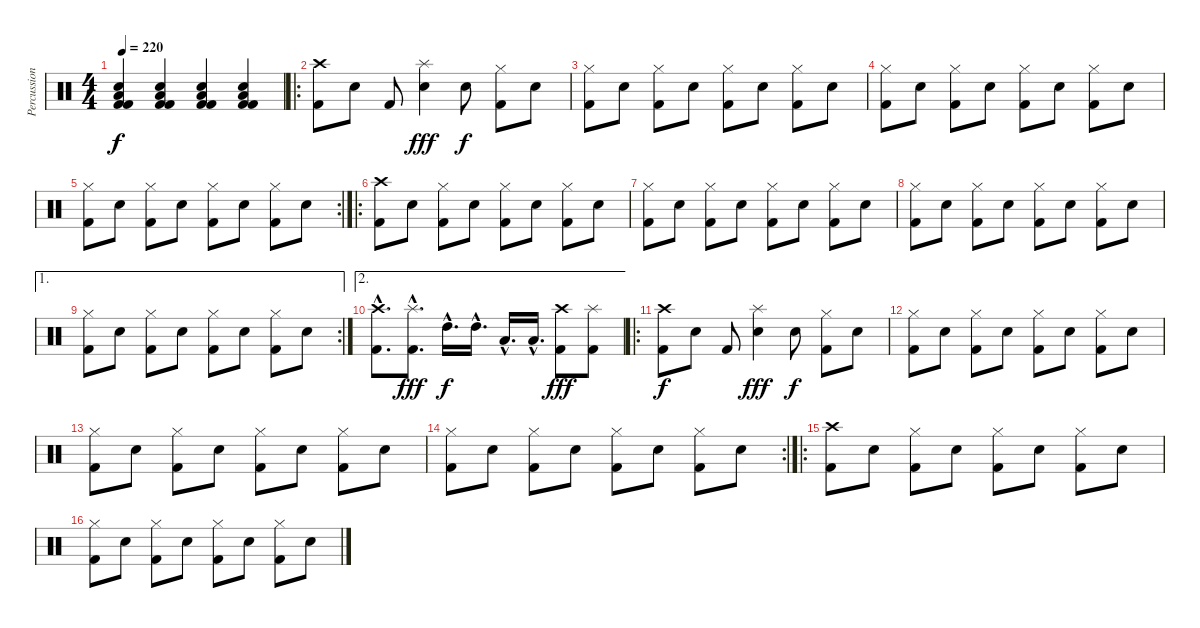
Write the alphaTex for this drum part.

\track ("Percussion" "Percussion") {instrument percussion}
\staff {score}
\articulation defaults
\ts (4 4)
\tempo 220
\clef neutral
\ks c
("Electric Snare (hit)" "Low Tom (hit)" "Kick (hit) 2" "Kick (hit) 2").4{dy f} ("Electric Snare (hit)" "Low Tom (hit)" "Kick (hit) 2" "Kick (hit) 2").4 ("Electric Snare (hit)" "Low Tom (hit)" "Kick (hit) 2" "Kick (hit) 2").4 ("Electric Snare (hit)" "Low Tom (hit)" "Kick (hit) 2" "Kick (hit) 2").4 |
\ro
("Crash high (hit)" "Kick (hit) 2").8 "Electric Snare (hit)".8 "Kick (hit) 2".8 ("Splash (hit)" "Electric Snare (hit)").4{dy fff} "Electric Snare (hit)".8{dy f} ("Hi-Hat (closed)" "Kick (hit) 2").8 "Electric Snare (hit)".8 |
("Hi-Hat (closed)" "Kick (hit) 2").8 "Electric Snare (hit)".8 ("Hi-Hat (closed)" "Kick (hit) 2").8 "Electric Snare (hit)".8 ("Hi-Hat (closed)" "Kick (hit) 2").8 "Electric Snare (hit)".8 ("Hi-Hat (closed)" "Kick (hit) 2").8 "Electric Snare (hit)".8 |
("Hi-Hat (closed)" "Kick (hit) 2").8 "Electric Snare (hit)".8 ("Hi-Hat (closed)" "Kick (hit) 2").8 "Electric Snare (hit)".8 ("Hi-Hat (closed)" "Kick (hit) 2").8 "Electric Snare (hit)".8 ("Hi-Hat (closed)" "Kick (hit) 2").8 "Electric Snare (hit)".8 |
\rc 2
("Hi-Hat (closed)" "Kick (hit) 2").8 "Electric Snare (hit)".8 ("Hi-Hat (closed)" "Kick (hit) 2").8 "Electric Snare (hit)".8 ("Hi-Hat (closed)" "Kick (hit) 2").8 "Electric Snare (hit)".8 ("Hi-Hat (closed)" "Kick (hit) 2").8 "Electric Snare (hit)".8 |
\ro
("Crash high (hit)" "Kick (hit) 2").8 "Electric Snare (hit)".8 ("Hi-Hat (closed)" "Kick (hit) 2").8 "Electric Snare (hit)".8 ("Hi-Hat (closed)" "Kick (hit) 2").8 "Electric Snare (hit)".8 ("Hi-Hat (closed)" "Kick (hit) 2").8 "Electric Snare (hit)".8 |
("Hi-Hat (closed)" "Kick (hit) 2").8 "Electric Snare (hit)".8 ("Hi-Hat (closed)" "Kick (hit) 2").8 "Electric Snare (hit)".8 ("Hi-Hat (closed)" "Kick (hit) 2").8 "Electric Snare (hit)".8 ("Hi-Hat (closed)" "Kick (hit) 2").8 "Electric Snare (hit)".8 |
("Hi-Hat (closed)" "Kick (hit) 2").8 "Electric Snare (hit)".8 ("Hi-Hat (closed)" "Kick (hit) 2").8 "Electric Snare (hit)".8 ("Hi-Hat (closed)" "Kick (hit) 2").8 "Electric Snare (hit)".8 ("Hi-Hat (closed)" "Kick (hit) 2").8 "Electric Snare (hit)".8 |
\ae 1
\rc 2
("Hi-Hat (closed)" "Kick (hit) 2").8 "Electric Snare (hit)".8 ("Hi-Hat (closed)" "Kick (hit) 2").8 "Electric Snare (hit)".8 ("Hi-Hat (closed)" "Kick (hit) 2").8 "Electric Snare (hit)".8 ("Hi-Hat (closed)" "Kick (hit) 2").8 "Electric Snare (hit)".8 |
\ae 2
("Crash high (hit)"{hac} "Kick (hit) 2"{hac}).8{d} ("Splash (hit)"{hac} "Kick (hit) 2"{hac}).8{d dy fff} "High Tom (hit)"{hac}.16{d dy f} "High Tom (hit)"{hac}.16{d} "Low Tom (hit)"{hac}.16{d} "Low Tom (hit)"{hac}.16{d} ("Crash high (hit)" "Kick (hit) 2").8{dy fff} ("Splash (hit)" "Kick (hit) 2").8 |
\ro
("Crash high (hit)" "Kick (hit) 2").8{dy f} "Electric Snare (hit)".8 "Kick (hit) 2".8 ("Splash (hit)" "Electric Snare (hit)").4{dy fff} "Electric Snare (hit)".8{dy f} ("Hi-Hat (closed)" "Kick (hit) 2").8 "Electric Snare (hit)".8 |
("Hi-Hat (closed)" "Kick (hit) 2").8 "Electric Snare (hit)".8 ("Hi-Hat (closed)" "Kick (hit) 2").8 "Electric Snare (hit)".8 ("Hi-Hat (closed)" "Kick (hit) 2").8 "Electric Snare (hit)".8 ("Hi-Hat (closed)" "Kick (hit) 2").8 "Electric Snare (hit)".8 |
("Hi-Hat (closed)" "Kick (hit) 2").8 "Electric Snare (hit)".8 ("Hi-Hat (closed)" "Kick (hit) 2").8 "Electric Snare (hit)".8 ("Hi-Hat (closed)" "Kick (hit) 2").8 "Electric Snare (hit)".8 ("Hi-Hat (closed)" "Kick (hit) 2").8 "Electric Snare (hit)".8 |
\rc 2
("Hi-Hat (closed)" "Kick (hit) 2").8 "Electric Snare (hit)".8 ("Hi-Hat (closed)" "Kick (hit) 2").8 "Electric Snare (hit)".8 ("Hi-Hat (closed)" "Kick (hit) 2").8 "Electric Snare (hit)".8 ("Hi-Hat (closed)" "Kick (hit) 2").8 "Electric Snare (hit)".8 |
\ro
("Crash high (hit)" "Kick (hit) 2").8 "Electric Snare (hit)".8 ("Hi-Hat (closed)" "Kick (hit) 2").8 "Electric Snare (hit)".8 ("Hi-Hat (closed)" "Kick (hit) 2").8 "Electric Snare (hit)".8 ("Hi-Hat (closed)" "Kick (hit) 2").8 "Electric Snare (hit)".8 |
("Hi-Hat (closed)" "Kick (hit) 2").8 "Electric Snare (hit)".8 ("Hi-Hat (closed)" "Kick (hit) 2").8 "Electric Snare (hit)".8 ("Hi-Hat (closed)" "Kick (hit) 2").8 "Electric Snare (hit)".8 ("Hi-Hat (closed)" "Kick (hit) 2").8 "Electric Snare (hit)".8
